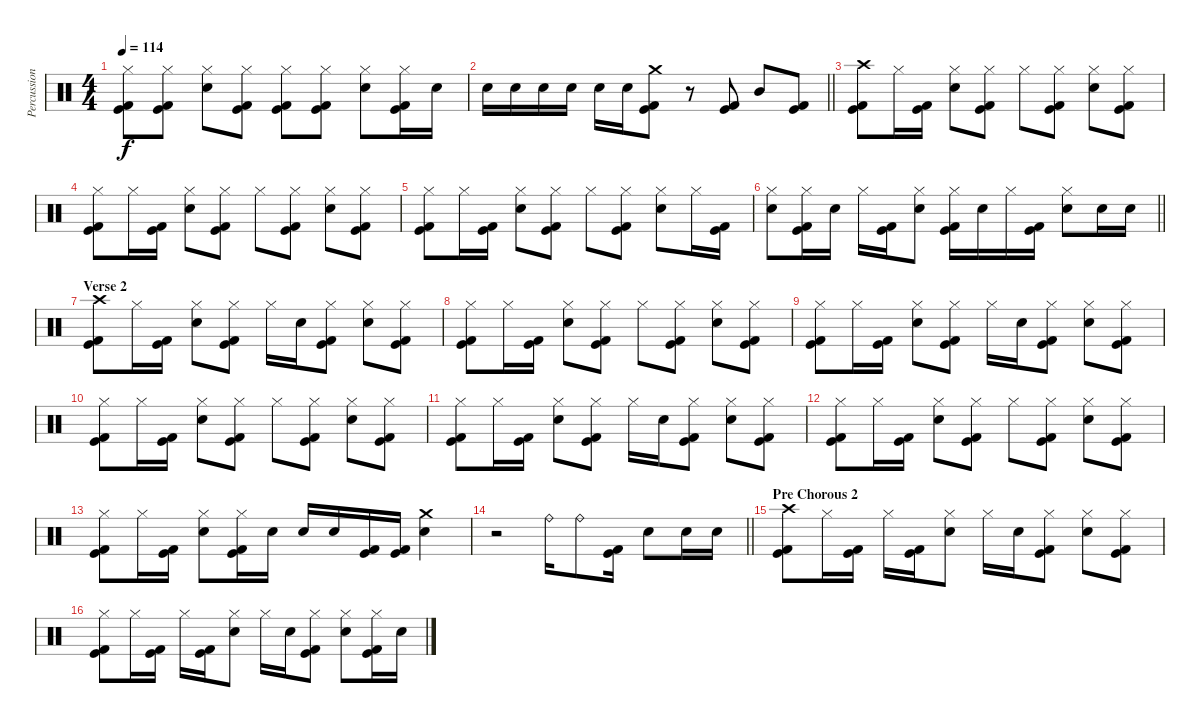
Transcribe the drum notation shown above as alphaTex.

\track ("Percussion" "Percussion") {instrument percussion}
\staff {score}
\articulation defaults
\ts (4 4)
\tempo 114
\clef neutral
\ks c
("Hi-Hat (closed)" "Kick (hit)" "Kick (hit) 2").8{dy f} ("Hi-Hat (closed)" "Kick (hit)" "Kick (hit) 2").8 ("Hi-Hat (closed)" "Electric Snare (hit)").8 ("Hi-Hat (closed)" "Kick (hit)" "Kick (hit) 2").8 ("Hi-Hat (closed)" "Kick (hit)" "Kick (hit) 2").8 ("Hi-Hat (closed)" "Kick (hit)" "Kick (hit) 2").8 ("Hi-Hat (closed)" "Electric Snare (hit)").8 ("Hi-Hat (closed)" "Kick (hit)" "Kick (hit) 2").16 "Electric Snare (hit)".16 |
\barLineRight lightlight "Electric Snare (hit)".16 "Electric Snare (hit)".16 "Electric Snare (hit)".16 "Electric Snare (hit)".16 "Electric Snare (hit)".16 "Electric Snare (hit)".16
("Crash medium (hit)" "Kick (hit)" "Kick (hit) 2").8 r.8 ("Kick (hit)" "Kick (hit) 2").8 "Mid Tom (hit)".8 ("Kick (hit)" "Kick (hit) 2").8 |
\section ("" "")
("Crash high (hit)" "Kick (hit)" "Kick (hit) 2").8 "Hi-Hat (closed)".16 ("Kick (hit)" "Kick (hit) 2").16 ("Hi-Hat (closed)" "Electric Snare (hit)").8 ("Hi-Hat (closed)" "Kick (hit)" "Kick (hit) 2").8 "Hi-Hat (closed)".8 ("Hi-Hat (closed)" "Kick (hit)" "Kick (hit) 2").8 ("Hi-Hat (closed)" "Electric Snare (hit)").8 ("Hi-Hat (closed)" "Kick (hit)" "Kick (hit) 2").8 |
("Hi-Hat (closed)" "Kick (hit)" "Kick (hit) 2").8 "Hi-Hat (closed)".16 ("Kick (hit)" "Kick (hit) 2").16 ("Hi-Hat (closed)" "Electric Snare (hit)").8 ("Hi-Hat (closed)" "Kick (hit)" "Kick (hit) 2").8 "Hi-Hat (closed)".8 ("Hi-Hat (closed)" "Kick (hit)" "Kick (hit) 2").8 ("Hi-Hat (closed)" "Electric Snare (hit)").8 ("Hi-Hat (closed)" "Kick (hit)" "Kick (hit) 2").8 |
("Hi-Hat (closed)" "Kick (hit)" "Kick (hit) 2").8 "Hi-Hat (closed)".16 ("Kick (hit)" "Kick (hit) 2").16 ("Hi-Hat (closed)" "Electric Snare (hit)").8 ("Hi-Hat (closed)" "Kick (hit)" "Kick (hit) 2").8 "Hi-Hat (closed)".8 ("Hi-Hat (closed)" "Kick (hit)" "Kick (hit) 2").8 ("Hi-Hat (closed)" "Electric Snare (hit)").8 "Hi-Hat (closed)".16 ("Kick (hit)" "Kick (hit) 2").16 |
\barLineRight lightlight
("Hi-Hat (closed)" "Electric Snare (hit)").8 ("Hi-Hat (closed)" "Kick (hit)" "Kick (hit) 2").16 "Electric Snare (hit)".16 "Hi-Hat (closed)".16 ("Kick (hit)" "Kick (hit) 2").16 ("Hi-Hat (closed)" "Electric Snare (hit)").8 ("Hi-Hat (closed)" "Kick (hit)" "Kick (hit) 2").16 "Electric Snare (hit)".16 "Hi-Hat (closed)".16 ("Kick (hit)" "Kick (hit) 2").16 ("Hi-Hat (closed)" "Electric Snare (hit)").8 "Electric Snare (hit)".16 "Electric Snare (hit)".16 |
\section ("" "Verse 2")
("Crash high (hit)" "Kick (hit)" "Kick (hit) 2").8 "Hi-Hat (closed)".16 ("Kick (hit)" "Kick (hit) 2").16 ("Hi-Hat (closed)" "Electric Snare (hit)").8 ("Hi-Hat (closed)" "Kick (hit)" "Kick (hit) 2").8 "Hi-Hat (closed)".16 "Electric Snare (hit)".16 ("Hi-Hat (closed)" "Kick (hit)" "Kick (hit) 2").8 ("Hi-Hat (closed)" "Electric Snare (hit)").8 ("Hi-Hat (closed)" "Kick (hit)" "Kick (hit) 2").8 |
("Hi-Hat (closed)" "Kick (hit)" "Kick (hit) 2").8 "Hi-Hat (closed)".16 ("Kick (hit)" "Kick (hit) 2").16 ("Hi-Hat (closed)" "Electric Snare (hit)").8 ("Hi-Hat (closed)" "Kick (hit)" "Kick (hit) 2").8 "Hi-Hat (closed)".8 ("Hi-Hat (closed)" "Kick (hit)" "Kick (hit) 2").8 ("Hi-Hat (closed)" "Electric Snare (hit)").8 ("Hi-Hat (closed)" "Kick (hit)" "Kick (hit) 2").8 |
("Hi-Hat (closed)" "Kick (hit)" "Kick (hit) 2").8 "Hi-Hat (closed)".16 ("Kick (hit)" "Kick (hit) 2").16 ("Hi-Hat (closed)" "Electric Snare (hit)").8 ("Hi-Hat (closed)" "Kick (hit)" "Kick (hit) 2").8 "Hi-Hat (closed)".16 "Electric Snare (hit)".16 ("Hi-Hat (closed)" "Kick (hit)" "Kick (hit) 2").8 ("Hi-Hat (closed)" "Electric Snare (hit)").8 ("Hi-Hat (closed)" "Kick (hit)" "Kick (hit) 2").8 |
("Hi-Hat (closed)" "Kick (hit)" "Kick (hit) 2").8 "Hi-Hat (closed)".16 ("Kick (hit)" "Kick (hit) 2").16 ("Hi-Hat (closed)" "Electric Snare (hit)").8 ("Hi-Hat (closed)" "Kick (hit)" "Kick (hit) 2").8 "Hi-Hat (closed)".8 ("Hi-Hat (closed)" "Kick (hit)" "Kick (hit) 2").8 ("Hi-Hat (closed)" "Electric Snare (hit)").8 ("Hi-Hat (closed)" "Kick (hit)" "Kick (hit) 2").8 |
("Hi-Hat (closed)" "Kick (hit)" "Kick (hit) 2").8 "Hi-Hat (closed)".16 ("Kick (hit)" "Kick (hit) 2").16 ("Hi-Hat (closed)" "Electric Snare (hit)").8 ("Hi-Hat (closed)" "Kick (hit)" "Kick (hit) 2").8 "Hi-Hat (closed)".16 "Electric Snare (hit)".16 ("Hi-Hat (closed)" "Kick (hit)" "Kick (hit) 2").8 ("Hi-Hat (closed)" "Electric Snare (hit)").8 ("Hi-Hat (closed)" "Kick (hit)" "Kick (hit) 2").8 |
("Hi-Hat (closed)" "Kick (hit)" "Kick (hit) 2").8 "Hi-Hat (closed)".16 ("Kick (hit)" "Kick (hit) 2").16 ("Hi-Hat (closed)" "Electric Snare (hit)").8 ("Hi-Hat (closed)" "Kick (hit)" "Kick (hit) 2").8 "Hi-Hat (closed)".8 ("Hi-Hat (closed)" "Kick (hit)" "Kick (hit) 2").8 ("Hi-Hat (closed)" "Electric Snare (hit)").8 ("Hi-Hat (closed)" "Kick (hit)" "Kick (hit) 2").8 |
("Hi-Hat (closed)" "Kick (hit)" "Kick (hit) 2").8 "Hi-Hat (closed)".16 ("Kick (hit)" "Kick (hit) 2").16 ("Hi-Hat (closed)" "Electric Snare (hit)").8 ("Hi-Hat (closed)" "Kick (hit)" "Kick (hit) 2").16 "Electric Snare (hit)".16 "Electric Snare (hit)".16 "Electric Snare (hit)".16 ("Kick (hit)" "Kick (hit) 2").16 ("Kick (hit)" "Kick (hit) 2").16 ("Crash medium (hit)" "Electric Snare (hit)").4 |
\barLineRight lightlight
r.2 "Ride (bell)".16 "Ride (bell)".8 ("Kick (hit)" "Kick (hit) 2").16 "Electric Snare (hit)".8 "Electric Snare (hit)".16 "Electric Snare (hit)".16 |
\section ("" "Pre Chorous 2")
("Crash high (hit)" "Kick (hit)" "Kick (hit) 2").8 "Hi-Hat (closed)".16 ("Kick (hit)" "Kick (hit) 2").16 "Hi-Hat (closed)".16 ("Kick (hit)" "Kick (hit) 2").16 ("Hi-Hat (closed)" "Electric Snare (hit)").8 "Hi-Hat (closed)".16 "Electric Snare (hit)".16 ("Hi-Hat (closed)" "Kick (hit)" "Kick (hit) 2").8 ("Hi-Hat (closed)" "Electric Snare (hit)").8 ("Hi-Hat (closed)" "Kick (hit)" "Kick (hit) 2").8 |
("Hi-Hat (closed)" "Kick (hit)" "Kick (hit) 2").8 "Hi-Hat (closed)".16 ("Kick (hit)" "Kick (hit) 2").16 "Hi-Hat (closed)".16 ("Kick (hit)" "Kick (hit) 2").16 ("Hi-Hat (closed)" "Electric Snare (hit)").8 "Hi-Hat (closed)".16 "Electric Snare (hit)".16 ("Hi-Hat (closed)" "Kick (hit)" "Kick (hit) 2").8 ("Hi-Hat (closed)" "Electric Snare (hit)").8 ("Hi-Hat (closed)" "Kick (hit)" "Kick (hit) 2").16 "Electric Snare (hit)".16
